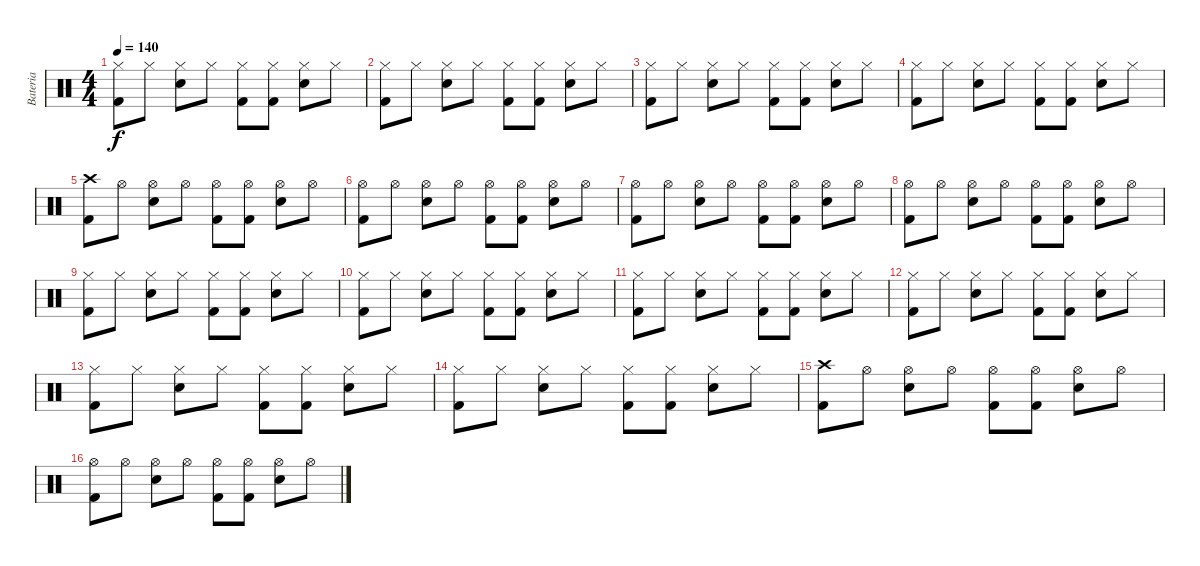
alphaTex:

\track ("Bateria" "Bateria") {instrument percussion}
\staff {score}
\articulation defaults
\ts (4 4)
\tempo 140
\clef neutral
\ks c
("Hi-Hat (closed)" "Kick (hit) 2").8{dy f} "Hi-Hat (closed)".8 ("Hi-Hat (closed)" "Electric Snare (hit)").8 "Hi-Hat (closed)".8 ("Hi-Hat (closed)" "Kick (hit) 2").8 ("Hi-Hat (closed)" "Kick (hit) 2").8 ("Hi-Hat (closed)" "Electric Snare (hit)").8 "Hi-Hat (closed)".8 |
("Hi-Hat (closed)" "Kick (hit) 2").8 "Hi-Hat (closed)".8 ("Hi-Hat (closed)" "Electric Snare (hit)").8 "Hi-Hat (closed)".8 ("Hi-Hat (closed)" "Kick (hit) 2").8 ("Hi-Hat (closed)" "Kick (hit) 2").8 ("Hi-Hat (closed)" "Electric Snare (hit)").8 "Hi-Hat (closed)".8 |
("Hi-Hat (closed)" "Kick (hit) 2").8 "Hi-Hat (closed)".8 ("Hi-Hat (closed)" "Electric Snare (hit)").8 "Hi-Hat (closed)".8 ("Hi-Hat (closed)" "Kick (hit) 2").8 ("Hi-Hat (closed)" "Kick (hit) 2").8 ("Hi-Hat (closed)" "Electric Snare (hit)").8 "Hi-Hat (closed)".8 |
("Hi-Hat (closed)" "Kick (hit) 2").8 "Hi-Hat (closed)".8 ("Hi-Hat (closed)" "Electric Snare (hit)").8 "Hi-Hat (closed)".8 ("Hi-Hat (closed)" "Kick (hit) 2").8 ("Hi-Hat (closed)" "Kick (hit) 2").8 ("Hi-Hat (closed)" "Electric Snare (hit)").8 "Hi-Hat (closed)".8 |
("Crash high (hit)" "Kick (hit) 2").8 "Hi-Hat (open)".8 ("Hi-Hat (open)" "Electric Snare (hit)").8 "Hi-Hat (open)".8 ("Hi-Hat (open)" "Kick (hit) 2").8 ("Hi-Hat (open)" "Kick (hit) 2").8 ("Hi-Hat (open)" "Electric Snare (hit)").8 "Hi-Hat (open)".8 |
("Hi-Hat (open)" "Kick (hit) 2").8 "Hi-Hat (open)".8 ("Hi-Hat (open)" "Electric Snare (hit)").8 "Hi-Hat (open)".8 ("Hi-Hat (open)" "Kick (hit) 2").8 ("Hi-Hat (open)" "Kick (hit) 2").8 ("Hi-Hat (open)" "Electric Snare (hit)").8 "Hi-Hat (open)".8 |
("Hi-Hat (open)" "Kick (hit) 2").8 "Hi-Hat (open)".8 ("Hi-Hat (open)" "Electric Snare (hit)").8 "Hi-Hat (open)".8 ("Hi-Hat (open)" "Kick (hit) 2").8 ("Hi-Hat (open)" "Kick (hit) 2").8 ("Hi-Hat (open)" "Electric Snare (hit)").8 "Hi-Hat (open)".8 |
("Hi-Hat (open)" "Kick (hit) 2").8 "Hi-Hat (open)".8 ("Hi-Hat (open)" "Electric Snare (hit)").8 "Hi-Hat (open)".8 ("Hi-Hat (open)" "Kick (hit) 2").8 ("Hi-Hat (open)" "Kick (hit) 2").8 ("Hi-Hat (open)" "Electric Snare (hit)").8 "Hi-Hat (open)".8 |
("Hi-Hat (closed)" "Kick (hit) 2").8 "Hi-Hat (closed)".8 ("Hi-Hat (closed)" "Electric Snare (hit)").8 "Hi-Hat (closed)".8 ("Hi-Hat (closed)" "Kick (hit) 2").8 ("Hi-Hat (closed)" "Kick (hit) 2").8 ("Hi-Hat (closed)" "Electric Snare (hit)").8 "Hi-Hat (closed)".8 |
("Hi-Hat (closed)" "Kick (hit) 2").8 "Hi-Hat (closed)".8 ("Hi-Hat (closed)" "Electric Snare (hit)").8 "Hi-Hat (closed)".8 ("Hi-Hat (closed)" "Kick (hit) 2").8 ("Hi-Hat (closed)" "Kick (hit) 2").8 ("Hi-Hat (closed)" "Electric Snare (hit)").8 "Hi-Hat (closed)".8 |
("Hi-Hat (closed)" "Kick (hit) 2").8 "Hi-Hat (closed)".8 ("Hi-Hat (closed)" "Electric Snare (hit)").8 "Hi-Hat (closed)".8 ("Hi-Hat (closed)" "Kick (hit) 2").8 ("Hi-Hat (closed)" "Kick (hit) 2").8 ("Hi-Hat (closed)" "Electric Snare (hit)").8 "Hi-Hat (closed)".8 |
("Hi-Hat (closed)" "Kick (hit) 2").8 "Hi-Hat (closed)".8 ("Hi-Hat (closed)" "Electric Snare (hit)").8 "Hi-Hat (closed)".8 ("Hi-Hat (closed)" "Kick (hit) 2").8 ("Hi-Hat (closed)" "Kick (hit) 2").8 ("Hi-Hat (closed)" "Electric Snare (hit)").8 "Hi-Hat (closed)".8 |
("Hi-Hat (closed)" "Kick (hit) 2").8 "Hi-Hat (closed)".8 ("Hi-Hat (closed)" "Electric Snare (hit)").8 "Hi-Hat (closed)".8 ("Hi-Hat (closed)" "Kick (hit) 2").8 ("Hi-Hat (closed)" "Kick (hit) 2").8 ("Hi-Hat (closed)" "Electric Snare (hit)").8 "Hi-Hat (closed)".8 |
("Hi-Hat (closed)" "Kick (hit) 2").8 "Hi-Hat (closed)".8 ("Hi-Hat (closed)" "Electric Snare (hit)").8 "Hi-Hat (closed)".8 ("Hi-Hat (closed)" "Kick (hit) 2").8 ("Hi-Hat (closed)" "Kick (hit) 2").8 ("Hi-Hat (closed)" "Electric Snare (hit)").8 "Hi-Hat (closed)".8 |
("Crash high (hit)" "Kick (hit) 2").8 "Hi-Hat (open)".8 ("Hi-Hat (open)" "Electric Snare (hit)").8 "Hi-Hat (open)".8 ("Hi-Hat (open)" "Kick (hit) 2").8 ("Hi-Hat (open)" "Kick (hit) 2").8 ("Hi-Hat (open)" "Electric Snare (hit)").8 "Hi-Hat (open)".8 |
("Hi-Hat (open)" "Kick (hit) 2").8 "Hi-Hat (open)".8 ("Hi-Hat (open)" "Electric Snare (hit)").8 "Hi-Hat (open)".8 ("Hi-Hat (open)" "Kick (hit) 2").8 ("Hi-Hat (open)" "Kick (hit) 2").8 ("Hi-Hat (open)" "Electric Snare (hit)").8 "Hi-Hat (open)".8
